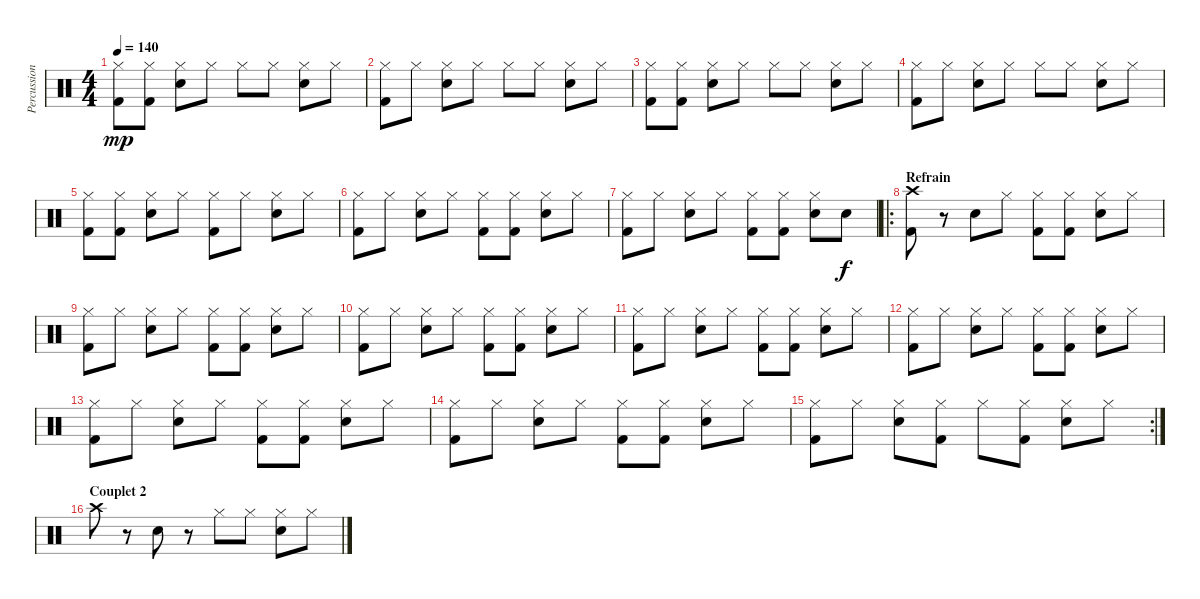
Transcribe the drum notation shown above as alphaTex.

\track ("Percussions" "Percussion") {instrument percussion}
\staff {score}
\articulation defaults
\ts (4 4)
\tempo 140
\clef neutral
\ks c
("Hi-Hat (closed)" "Kick (hit) 2").8{dy mp} ("Hi-Hat (closed)" "Kick (hit) 2").8 ("Hi-Hat (closed)" "Electric Snare (hit)").8 "Hi-Hat (closed)".8 "Hi-Hat (closed)".8 "Hi-Hat (closed)".8 ("Hi-Hat (closed)" "Electric Snare (hit)").8 "Hi-Hat (closed)".8 |
("Hi-Hat (closed)" "Kick (hit) 2").8 "Hi-Hat (closed)".8 ("Hi-Hat (closed)" "Electric Snare (hit)").8 "Hi-Hat (closed)".8 "Hi-Hat (closed)".8 "Hi-Hat (closed)".8 ("Hi-Hat (closed)" "Electric Snare (hit)").8 "Hi-Hat (closed)".8 |
("Hi-Hat (closed)" "Kick (hit) 2").8 ("Hi-Hat (closed)" "Kick (hit) 2").8 ("Hi-Hat (closed)" "Electric Snare (hit)").8 "Hi-Hat (closed)".8 "Hi-Hat (closed)".8 "Hi-Hat (closed)".8 ("Hi-Hat (closed)" "Electric Snare (hit)").8 "Hi-Hat (closed)".8 |
("Hi-Hat (closed)" "Kick (hit) 2").8 "Hi-Hat (closed)".8 ("Hi-Hat (closed)" "Electric Snare (hit)").8 "Hi-Hat (closed)".8 "Hi-Hat (closed)".8 "Hi-Hat (closed)".8 ("Hi-Hat (closed)" "Electric Snare (hit)").8 "Hi-Hat (closed)".8 |
("Hi-Hat (closed)" "Kick (hit) 2").8 ("Hi-Hat (closed)" "Kick (hit) 2").8 ("Hi-Hat (closed)" "Electric Snare (hit)").8 "Hi-Hat (closed)".8 ("Hi-Hat (closed)" "Kick (hit) 2").8 "Hi-Hat (closed)".8 ("Hi-Hat (closed)" "Electric Snare (hit)").8 "Hi-Hat (closed)".8 |
("Hi-Hat (closed)" "Kick (hit) 2").8 "Hi-Hat (closed)".8 ("Hi-Hat (closed)" "Electric Snare (hit)").8 "Hi-Hat (closed)".8 ("Hi-Hat (closed)" "Kick (hit) 2").8 ("Hi-Hat (closed)" "Kick (hit) 2").8 ("Hi-Hat (closed)" "Electric Snare (hit)").8 "Hi-Hat (closed)".8 |
("Hi-Hat (closed)" "Kick (hit) 2").8 "Hi-Hat (closed)".8 ("Hi-Hat (closed)" "Electric Snare (hit)").8 "Hi-Hat (closed)".8 ("Hi-Hat (closed)" "Kick (hit) 2").8 ("Hi-Hat (closed)" "Kick (hit) 2").8 ("Hi-Hat (closed)" "Electric Snare (hit)").8 "Electric Snare (hit)".8{dy f} |
\ro
\section ("" "Refrain")
("Crash high (hit)" "Kick (hit) 2").8 r.8 "Electric Snare (hit)".8 "Hi-Hat (closed)".8 ("Hi-Hat (closed)" "Kick (hit) 2").8 ("Hi-Hat (closed)" "Kick (hit) 2").8 ("Hi-Hat (closed)" "Electric Snare (hit)").8 "Hi-Hat (closed)".8 |
("Hi-Hat (closed)" "Kick (hit) 2").8 "Hi-Hat (closed)".8 ("Hi-Hat (closed)" "Electric Snare (hit)").8 "Hi-Hat (closed)".8 ("Hi-Hat (closed)" "Kick (hit) 2").8 ("Hi-Hat (closed)" "Kick (hit) 2").8 ("Hi-Hat (closed)" "Electric Snare (hit)").8 "Hi-Hat (closed)".8 |
("Hi-Hat (closed)" "Kick (hit) 2").8 "Hi-Hat (closed)".8 ("Hi-Hat (closed)" "Electric Snare (hit)").8 "Hi-Hat (closed)".8 ("Hi-Hat (closed)" "Kick (hit) 2").8 ("Hi-Hat (closed)" "Kick (hit) 2").8 ("Hi-Hat (closed)" "Electric Snare (hit)").8 "Hi-Hat (closed)".8 |
("Hi-Hat (closed)" "Kick (hit) 2").8 "Hi-Hat (closed)".8 ("Hi-Hat (closed)" "Electric Snare (hit)").8 "Hi-Hat (closed)".8 ("Hi-Hat (closed)" "Kick (hit) 2").8 ("Hi-Hat (closed)" "Kick (hit) 2").8 ("Hi-Hat (closed)" "Electric Snare (hit)").8 "Hi-Hat (closed)".8 |
("Hi-Hat (closed)" "Kick (hit) 2").8 "Hi-Hat (closed)".8 ("Hi-Hat (closed)" "Electric Snare (hit)").8 "Hi-Hat (closed)".8 ("Hi-Hat (closed)" "Kick (hit) 2").8 ("Hi-Hat (closed)" "Kick (hit) 2").8 ("Hi-Hat (closed)" "Electric Snare (hit)").8 "Hi-Hat (closed)".8 |
("Hi-Hat (closed)" "Kick (hit) 2").8 "Hi-Hat (closed)".8 ("Hi-Hat (closed)" "Electric Snare (hit)").8 "Hi-Hat (closed)".8 ("Hi-Hat (closed)" "Kick (hit) 2").8 ("Hi-Hat (closed)" "Kick (hit) 2").8 ("Hi-Hat (closed)" "Electric Snare (hit)").8 "Hi-Hat (closed)".8 |
("Hi-Hat (closed)" "Kick (hit) 2").8 "Hi-Hat (closed)".8 ("Hi-Hat (closed)" "Electric Snare (hit)").8 "Hi-Hat (closed)".8 ("Hi-Hat (closed)" "Kick (hit) 2").8 ("Hi-Hat (closed)" "Kick (hit) 2").8 ("Hi-Hat (closed)" "Electric Snare (hit)").8 "Hi-Hat (closed)".8 |
\rc 2
("Hi-Hat (closed)" "Kick (hit) 2").8 "Hi-Hat (closed)".8 ("Hi-Hat (closed)" "Electric Snare (hit)").8 ("Hi-Hat (closed)" "Kick (hit) 2").8 "Hi-Hat (closed)".8 ("Hi-Hat (closed)" "Kick (hit) 2").8 ("Hi-Hat (closed)" "Electric Snare (hit)").8 "Hi-Hat (closed)".8 |
\section ("" "Couplet 2")
"Crash high (hit)".8 r.8 "Electric Snare (hit)".8 r.8 "Hi-Hat (closed)".8 "Hi-Hat (closed)".8 ("Hi-Hat (closed)" "Electric Snare (hit)").8 "Hi-Hat (closed)".8
